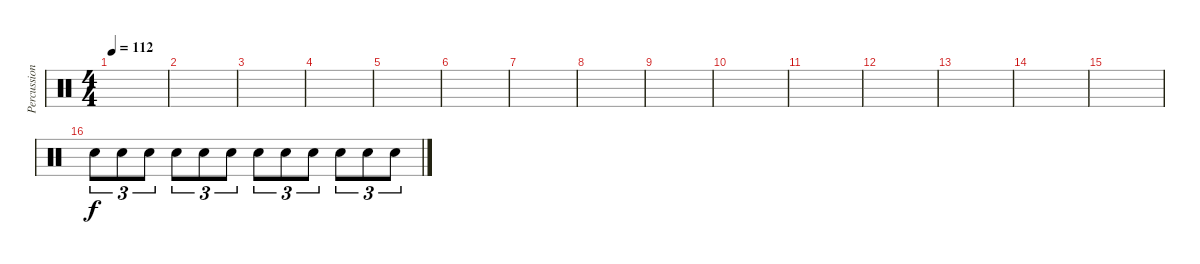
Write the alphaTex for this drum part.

\track ("Percussion" "Percussion") {instrument percussion}
\staff {score}
\articulation defaults
\ts (4 4)
\tempo 112
\clef neutral
\ks c
|
|
|
|
|
|
|
|
|
|
|
|
|
|
|
"Snare (hit) 2".8{tu (3 2) volume 0} "Snare (hit) 2".8{tu (3 2) volume 16} "Snare (hit) 2".8{tu (3 2)} "Snare (hit) 2".8{tu (3 2)} "Snare (hit) 2".8{tu (3 2)} "Snare (hit) 2".8{tu (3 2)} "Snare (hit) 2".8{tu (3 2)} "Snare (hit) 2".8{tu (3 2)} "Snare (hit) 2".8{tu (3 2)} "Snare (hit) 2".8{tu (3 2)} "Snare (hit) 2".8{tu (3 2)} "Snare (hit) 2".8{tu (3 2)}
